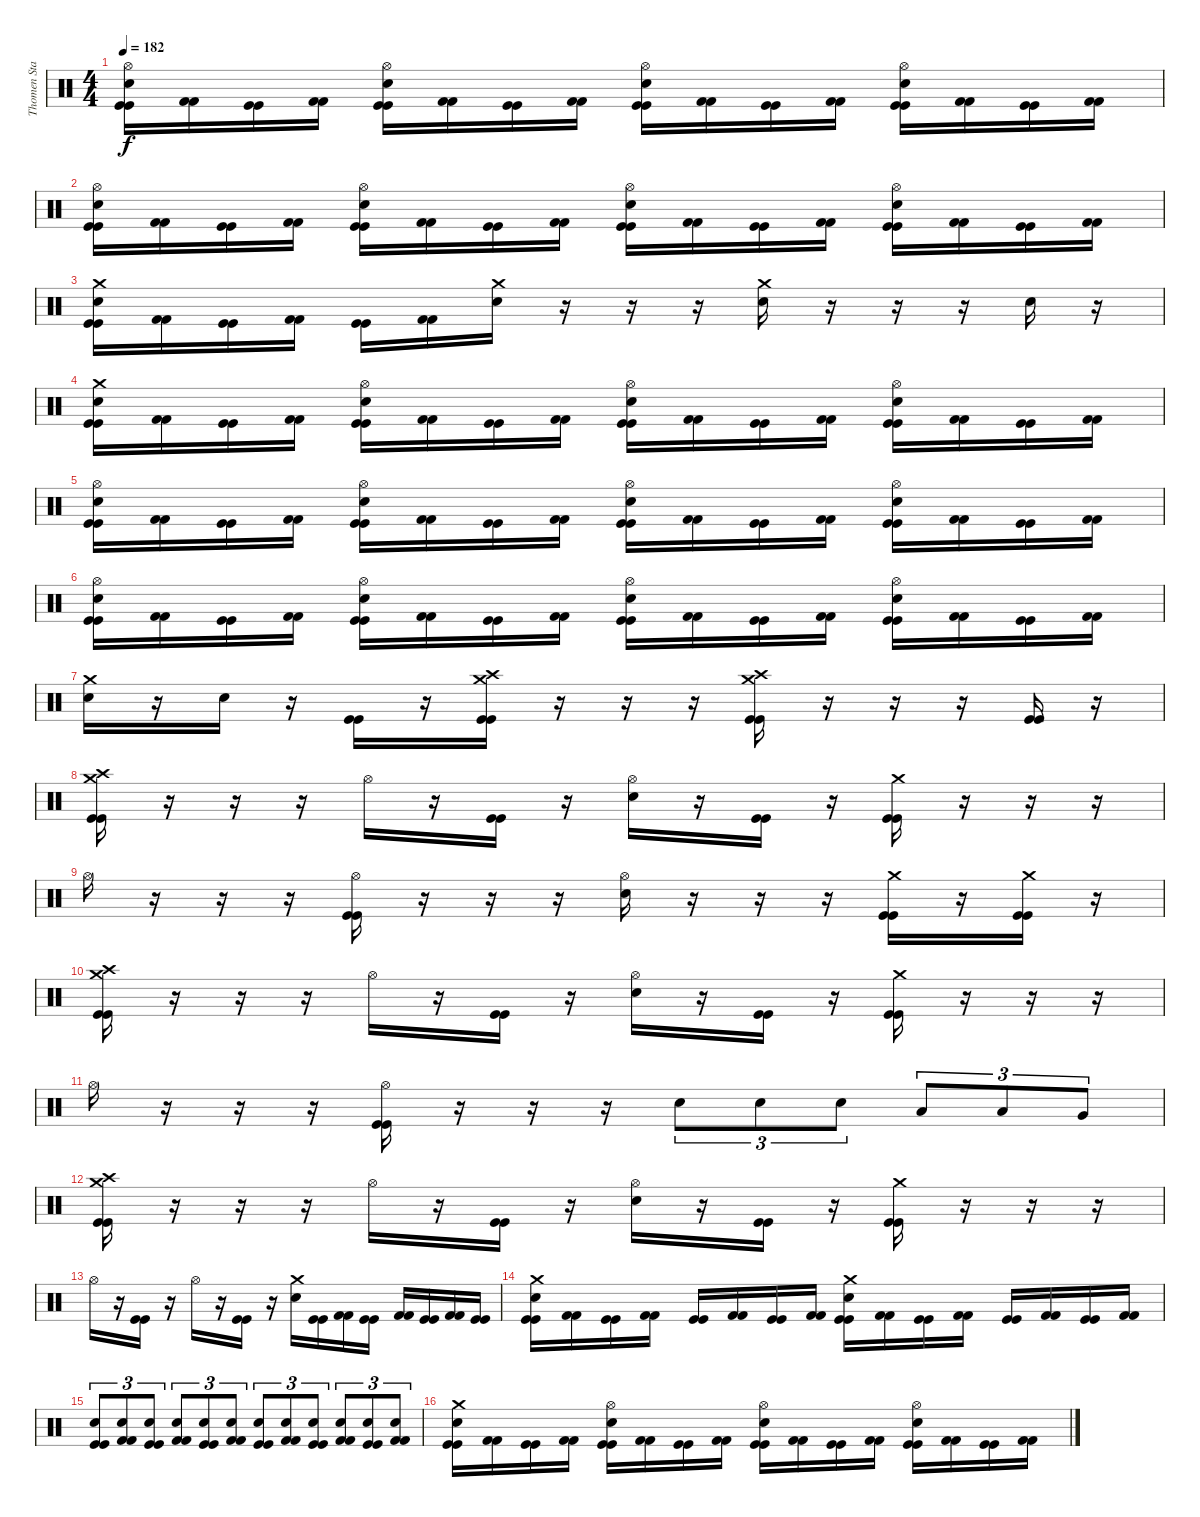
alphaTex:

\track ("Thomen Stauch" "Thomen Sta") {instrument percussion}
\staff {score}
\articulation defaults
\ts (4 4)
\tempo 182
\clef neutral
\ks c
("Hi-Hat (open)" "Snare (hit) 2" "Kick (hit)" "Kick (hit)").16{dy f} ("Kick (hit) 2" "Kick (hit) 2").16 ("Kick (hit)" "Kick (hit)").16 ("Kick (hit) 2" "Kick (hit) 2").16 ("Hi-Hat (open)" "Snare (hit) 2" "Kick (hit)" "Kick (hit)").16 ("Kick (hit) 2" "Kick (hit) 2").16 ("Kick (hit)" "Kick (hit)").16 ("Kick (hit) 2" "Kick (hit) 2").16 ("Hi-Hat (open)" "Snare (hit) 2" "Kick (hit)" "Kick (hit)").16 ("Kick (hit) 2" "Kick (hit) 2").16 ("Kick (hit)" "Kick (hit)").16 ("Kick (hit) 2" "Kick (hit) 2").16 ("Hi-Hat (open)" "Snare (hit) 2" "Kick (hit)" "Kick (hit)").16 ("Kick (hit) 2" "Kick (hit) 2").16 ("Kick (hit)" "Kick (hit)").16 ("Kick (hit) 2" "Kick (hit) 2").16 |
("Hi-Hat (open)" "Snare (hit) 2" "Kick (hit)" "Kick (hit)").16 ("Kick (hit) 2" "Kick (hit) 2").16 ("Kick (hit)" "Kick (hit)").16 ("Kick (hit) 2" "Kick (hit) 2").16 ("Hi-Hat (open)" "Snare (hit) 2" "Kick (hit)" "Kick (hit)").16 ("Kick (hit) 2" "Kick (hit) 2").16 ("Kick (hit)" "Kick (hit)").16 ("Kick (hit) 2" "Kick (hit) 2").16 ("Hi-Hat (open)" "Snare (hit) 2" "Kick (hit)" "Kick (hit)").16 ("Kick (hit) 2" "Kick (hit) 2").16 ("Kick (hit)" "Kick (hit)").16 ("Kick (hit) 2" "Kick (hit) 2").16 ("Hi-Hat (open)" "Snare (hit) 2" "Kick (hit)" "Kick (hit)").16 ("Kick (hit) 2" "Kick (hit) 2").16 ("Kick (hit)" "Kick (hit)").16 ("Kick (hit) 2" "Kick (hit) 2").16 |
("Crash medium (hit)" "Snare (hit) 2" "Kick (hit)" "Kick (hit)").16 ("Kick (hit) 2" "Kick (hit) 2").16 ("Kick (hit)" "Kick (hit)").16 ("Kick (hit) 2" "Kick (hit) 2").16 ("Kick (hit)" "Kick (hit)").16 ("Kick (hit) 2" "Kick (hit) 2").16 ("Crash medium (hit)" "Snare (hit) 2").16 r.16 r.16 r.16 ("Crash medium (hit)" "Snare (hit) 2").16 r.16 r.16 r.16 "Snare (hit) 2".16 r.16 |
("Crash medium (hit)" "Snare (hit) 2" "Kick (hit)" "Kick (hit)").16 ("Kick (hit) 2" "Kick (hit) 2").16 ("Kick (hit)" "Kick (hit)").16 ("Kick (hit) 2" "Kick (hit) 2").16 ("Hi-Hat (open)" "Snare (hit) 2" "Kick (hit)" "Kick (hit)").16 ("Kick (hit) 2" "Kick (hit) 2").16 ("Kick (hit)" "Kick (hit)").16 ("Kick (hit) 2" "Kick (hit) 2").16 ("Hi-Hat (open)" "Snare (hit) 2" "Kick (hit)" "Kick (hit)").16 ("Kick (hit) 2" "Kick (hit) 2").16 ("Kick (hit)" "Kick (hit)").16 ("Kick (hit) 2" "Kick (hit) 2").16 ("Hi-Hat (open)" "Snare (hit) 2" "Kick (hit)" "Kick (hit)").16 ("Kick (hit) 2" "Kick (hit) 2").16 ("Kick (hit)" "Kick (hit)").16 ("Kick (hit) 2" "Kick (hit) 2").16 |
("Hi-Hat (open)" "Snare (hit) 2" "Kick (hit)" "Kick (hit)").16 ("Kick (hit) 2" "Kick (hit) 2").16 ("Kick (hit)" "Kick (hit)").16 ("Kick (hit) 2" "Kick (hit) 2").16 ("Hi-Hat (open)" "Snare (hit) 2" "Kick (hit)" "Kick (hit)").16 ("Kick (hit) 2" "Kick (hit) 2").16 ("Kick (hit)" "Kick (hit)").16 ("Kick (hit) 2" "Kick (hit) 2").16 ("Hi-Hat (open)" "Snare (hit) 2" "Kick (hit)" "Kick (hit)").16 ("Kick (hit) 2" "Kick (hit) 2").16 ("Kick (hit)" "Kick (hit)").16 ("Kick (hit) 2" "Kick (hit) 2").16 ("Hi-Hat (open)" "Snare (hit) 2" "Kick (hit)" "Kick (hit)").16 ("Kick (hit) 2" "Kick (hit) 2").16 ("Kick (hit)" "Kick (hit)").16 ("Kick (hit) 2" "Kick (hit) 2").16 |
("Hi-Hat (open)" "Snare (hit) 2" "Kick (hit)" "Kick (hit)").16 ("Kick (hit) 2" "Kick (hit) 2").16 ("Kick (hit)" "Kick (hit)").16 ("Kick (hit) 2" "Kick (hit) 2").16 ("Hi-Hat (open)" "Snare (hit) 2" "Kick (hit)" "Kick (hit)").16 ("Kick (hit) 2" "Kick (hit) 2").16 ("Kick (hit)" "Kick (hit)").16 ("Kick (hit) 2" "Kick (hit) 2").16 ("Hi-Hat (open)" "Snare (hit) 2" "Kick (hit)" "Kick (hit)").16 ("Kick (hit) 2" "Kick (hit) 2").16 ("Kick (hit)" "Kick (hit)").16 ("Kick (hit) 2" "Kick (hit) 2").16 ("Hi-Hat (open)" "Snare (hit) 2" "Kick (hit)" "Kick (hit)").16 ("Kick (hit) 2" "Kick (hit) 2").16 ("Kick (hit)" "Kick (hit)").16 ("Kick (hit) 2" "Kick (hit) 2").16 |
("Crash medium (hit)" "Snare (hit) 2").16 r.16 "Snare (hit) 2".16 r.16 ("Kick (hit)" "Kick (hit)").16 r.16 ("Crash medium (hit)" "Crash high (hit)" "Kick (hit)" "Kick (hit)").16 r.16 r.16 r.16 ("Crash medium (hit)" "Crash high (hit)" "Kick (hit)" "Kick (hit)").16 r.16 r.16 r.16 ("Kick (hit)" "Kick (hit)").16 r.16 |
("Crash medium (hit)" "Crash high (hit)" "Kick (hit)" "Kick (hit)").16 r.16 r.16 r.16 "Hi-Hat (open)".16 r.16 ("Kick (hit)" "Kick (hit)").16 r.16 ("Hi-Hat (open)" "Snare (hit) 2").16 r.16 ("Kick (hit)" "Kick (hit)").16 r.16 ("Crash medium (hit)" "Kick (hit)" "Kick (hit)").16 r.16 r.16 r.16 |
"Hi-Hat (open)".16 r.16 r.16 r.16 ("Hi-Hat (open)" "Kick (hit)" "Kick (hit)").16 r.16 r.16 r.16 ("Hi-Hat (open)" "Snare (hit) 2").16 r.16 r.16 r.16 ("Crash medium (hit)" "Kick (hit)" "Kick (hit)").16 r.16 ("Crash medium (hit)" "Kick (hit)" "Kick (hit)").16 r.16 |
("Crash medium (hit)" "Crash high (hit)" "Kick (hit)" "Kick (hit)").16 r.16 r.16 r.16 "Hi-Hat (open)".16 r.16 ("Kick (hit)" "Kick (hit)").16 r.16 ("Hi-Hat (open)" "Snare (hit) 2").16 r.16 ("Kick (hit)" "Kick (hit)").16 r.16 ("Crash medium (hit)" "Kick (hit)" "Kick (hit)").16 r.16 r.16 r.16 |
"Hi-Hat (open)".16 r.16 r.16 r.16 ("Hi-Hat (open)" "Kick (hit)" "Kick (hit)").16 r.16 r.16 r.16 "Snare (hit) 2".8{tu (3 2)} "Snare (hit) 2".8{tu (3 2)} "Snare (hit) 2".8{tu (3 2)} "Low Tom (hit)".8{tu (3 2)} "Low Tom (hit)".8{tu (3 2)} "Very Low Tom (hit)".8{tu (3 2)} |
("Crash medium (hit)" "Crash high (hit)" "Kick (hit)" "Kick (hit)").16 r.16 r.16 r.16 "Hi-Hat (open)".16 r.16 ("Kick (hit)" "Kick (hit)").16 r.16 ("Hi-Hat (open)" "Snare (hit) 2").16 r.16 ("Kick (hit)" "Kick (hit)").16 r.16 ("Crash medium (hit)" "Kick (hit)" "Kick (hit)").16 r.16 r.16 r.16 |
"Hi-Hat (open)".16 r.16 ("Kick (hit)" "Kick (hit)").16 r.16 "Hi-Hat (open)".16 r.16 ("Kick (hit)" "Kick (hit)").16 r.16 ("Crash medium (hit)" "Snare (hit) 2").16 ("Kick (hit)" "Kick (hit)").16 ("Kick (hit) 2" "Kick (hit) 2").16 ("Kick (hit)" "Kick (hit)").16 ("Kick (hit) 2" "Kick (hit) 2").16 ("Kick (hit)" "Kick (hit)").16 ("Kick (hit) 2" "Kick (hit) 2").16 ("Kick (hit)" "Kick (hit)").16 |
("Crash medium (hit)" "Snare (hit) 2" "Kick (hit)" "Kick (hit)").16 ("Kick (hit) 2" "Kick (hit) 2").16 ("Kick (hit)" "Kick (hit)").16 ("Kick (hit) 2" "Kick (hit) 2").16 ("Kick (hit)" "Kick (hit)").16 ("Kick (hit) 2" "Kick (hit) 2").16 ("Kick (hit)" "Kick (hit)").16 ("Kick (hit) 2" "Kick (hit) 2").16 ("Crash medium (hit)" "Snare (hit) 2" "Kick (hit)" "Kick (hit)").16 ("Kick (hit) 2" "Kick (hit) 2").16 ("Kick (hit)" "Kick (hit)").16 ("Kick (hit) 2" "Kick (hit) 2").16 ("Kick (hit)" "Kick (hit)").16 ("Kick (hit) 2" "Kick (hit) 2").16 ("Kick (hit)" "Kick (hit)").16 ("Kick (hit) 2" "Kick (hit) 2").16 |
("Snare (hit) 2" "Kick (hit)" "Kick (hit)").8{tu (3 2)} ("Snare (hit) 2" "Kick (hit) 2" "Kick (hit) 2").8{tu (3 2)} ("Snare (hit) 2" "Kick (hit)" "Kick (hit)").8{tu (3 2)} ("Snare (hit) 2" "Kick (hit) 2" "Kick (hit) 2").8{tu (3 2)} ("Snare (hit) 2" "Kick (hit)" "Kick (hit)").8{tu (3 2)} ("Snare (hit) 2" "Kick (hit) 2" "Kick (hit) 2").8{tu (3 2)} ("Snare (hit) 2" "Kick (hit)" "Kick (hit)").8{tu (3 2)} ("Snare (hit) 2" "Kick (hit) 2" "Kick (hit) 2").8{tu (3 2)} ("Snare (hit) 2" "Kick (hit)" "Kick (hit)").8{tu (3 2)} ("Snare (hit) 2" "Kick (hit) 2" "Kick (hit) 2").8{tu (3 2)} ("Snare (hit) 2" "Kick (hit)" "Kick (hit)").8{tu (3 2)} ("Snare (hit) 2" "Kick (hit) 2" "Kick (hit) 2").8{tu (3 2)} |
("Crash medium (hit)" "Snare (hit) 2" "Kick (hit)" "Kick (hit)").16 ("Kick (hit) 2" "Kick (hit) 2").16 ("Kick (hit)" "Kick (hit)").16 ("Kick (hit) 2" "Kick (hit) 2").16 ("Hi-Hat (open)" "Snare (hit) 2" "Kick (hit)" "Kick (hit)").16 ("Kick (hit) 2" "Kick (hit) 2").16 ("Kick (hit)" "Kick (hit)").16 ("Kick (hit) 2" "Kick (hit) 2").16 ("Hi-Hat (open)" "Snare (hit) 2" "Kick (hit)" "Kick (hit)").16 ("Kick (hit) 2" "Kick (hit) 2").16 ("Kick (hit)" "Kick (hit)").16 ("Kick (hit) 2" "Kick (hit) 2").16 ("Hi-Hat (open)" "Snare (hit) 2" "Kick (hit)" "Kick (hit)").16 ("Kick (hit) 2" "Kick (hit) 2").16 ("Kick (hit)" "Kick (hit)").16 ("Kick (hit) 2" "Kick (hit) 2").16
